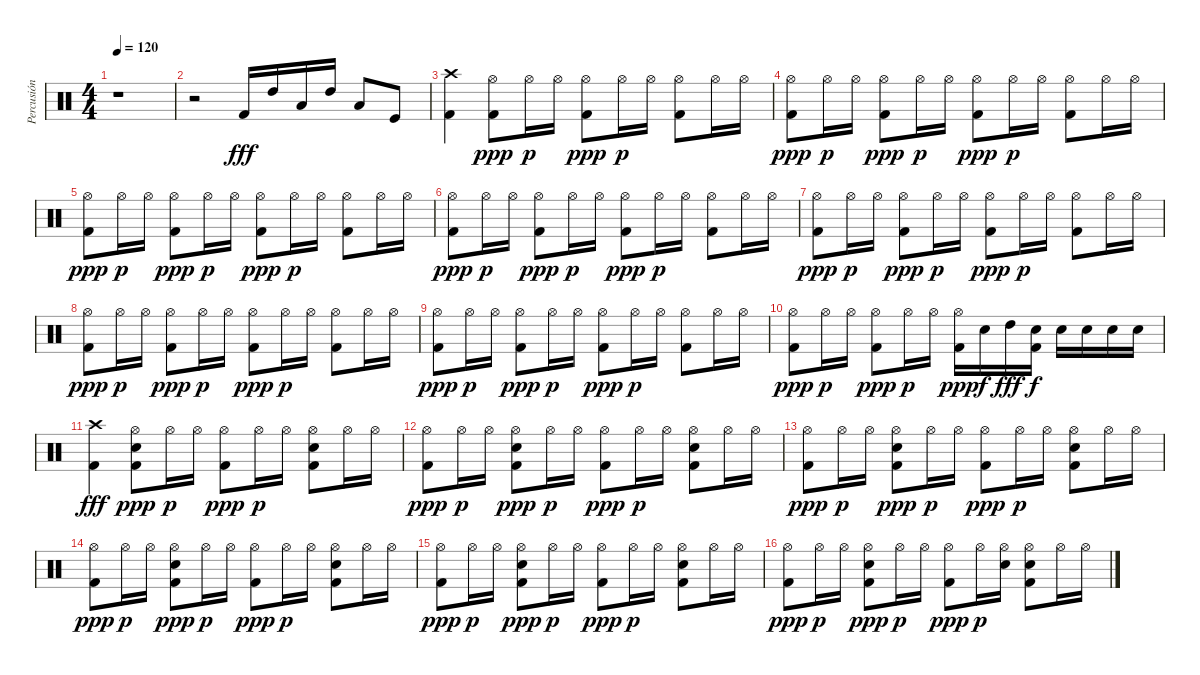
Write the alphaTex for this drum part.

\track ("Percusión" "Percusión") {instrument percussion}
\staff {score}
\articulation defaults
\ts (4 4)
\tempo 120
\clef neutral
\ks c
r.1{dy fff} |
r.2 "Kick (hit) 2".16 "High Tom (hit)".16 "Low Tom (hit)".16 "High Tom (hit)".16 "Low Tom (hit)".8 "Kick (hit)".8 |
("Crash high (hit)" "Kick (hit) 2").4 ("Hi-Hat (open)" "Kick (hit) 2").8{dy ppp} "Hi-Hat (open)".16{dy p} "Hi-Hat (open)".16 ("Hi-Hat (open)" "Kick (hit) 2").8{dy ppp} "Hi-Hat (open)".16{dy p} "Hi-Hat (open)".16 ("Hi-Hat (open)" "Kick (hit) 2").8 "Hi-Hat (open)".16 "Hi-Hat (open)".16 |
("Hi-Hat (open)" "Kick (hit) 2").8{dy ppp} "Hi-Hat (open)".16{dy p} "Hi-Hat (open)".16 ("Hi-Hat (open)" "Kick (hit) 2").8{dy ppp} "Hi-Hat (open)".16{dy p} "Hi-Hat (open)".16 ("Hi-Hat (open)" "Kick (hit) 2").8{dy ppp} "Hi-Hat (open)".16{dy p} "Hi-Hat (open)".16 ("Hi-Hat (open)" "Kick (hit) 2").8 "Hi-Hat (open)".16 "Hi-Hat (open)".16 |
("Hi-Hat (open)" "Kick (hit) 2").8{dy ppp} "Hi-Hat (open)".16{dy p} "Hi-Hat (open)".16 ("Hi-Hat (open)" "Kick (hit) 2").8{dy ppp} "Hi-Hat (open)".16{dy p} "Hi-Hat (open)".16 ("Hi-Hat (open)" "Kick (hit) 2").8{dy ppp} "Hi-Hat (open)".16{dy p} "Hi-Hat (open)".16 ("Hi-Hat (open)" "Kick (hit) 2").8 "Hi-Hat (open)".16 "Hi-Hat (open)".16 |
("Hi-Hat (open)" "Kick (hit) 2").8{dy ppp} "Hi-Hat (open)".16{dy p} "Hi-Hat (open)".16 ("Hi-Hat (open)" "Kick (hit) 2").8{dy ppp} "Hi-Hat (open)".16{dy p} "Hi-Hat (open)".16 ("Hi-Hat (open)" "Kick (hit) 2").8{dy ppp} "Hi-Hat (open)".16{dy p} "Hi-Hat (open)".16 ("Hi-Hat (open)" "Kick (hit) 2").8 "Hi-Hat (open)".16 "Hi-Hat (open)".16 |
("Hi-Hat (open)" "Kick (hit) 2").8{dy ppp} "Hi-Hat (open)".16{dy p} "Hi-Hat (open)".16 ("Hi-Hat (open)" "Kick (hit) 2").8{dy ppp} "Hi-Hat (open)".16{dy p} "Hi-Hat (open)".16 ("Hi-Hat (open)" "Kick (hit) 2").8{dy ppp} "Hi-Hat (open)".16{dy p} "Hi-Hat (open)".16 ("Hi-Hat (open)" "Kick (hit) 2").8 "Hi-Hat (open)".16 "Hi-Hat (open)".16 |
("Hi-Hat (open)" "Kick (hit) 2").8{dy ppp} "Hi-Hat (open)".16{dy p} "Hi-Hat (open)".16 ("Hi-Hat (open)" "Kick (hit) 2").8{dy ppp} "Hi-Hat (open)".16{dy p} "Hi-Hat (open)".16 ("Hi-Hat (open)" "Kick (hit) 2").8{dy ppp} "Hi-Hat (open)".16{dy p} "Hi-Hat (open)".16 ("Hi-Hat (open)" "Kick (hit) 2").8 "Hi-Hat (open)".16 "Hi-Hat (open)".16 |
("Hi-Hat (open)" "Kick (hit) 2").8{dy ppp} "Hi-Hat (open)".16{dy p} "Hi-Hat (open)".16 ("Hi-Hat (open)" "Kick (hit) 2").8{dy ppp} "Hi-Hat (open)".16{dy p} "Hi-Hat (open)".16 ("Hi-Hat (open)" "Kick (hit) 2").8{dy ppp} "Hi-Hat (open)".16{dy p} "Hi-Hat (open)".16 ("Hi-Hat (open)" "Kick (hit) 2").8 "Hi-Hat (open)".16 "Hi-Hat (open)".16 |
("Hi-Hat (open)" "Kick (hit) 2").8{dy ppp} "Hi-Hat (open)".16{dy p} "Hi-Hat (open)".16 ("Hi-Hat (open)" "Kick (hit) 2").8{dy ppp} "Hi-Hat (open)".16{dy p} "Hi-Hat (open)".16 ("Hi-Hat (open)" "Kick (hit) 2").16{dy ppp} "Snare (hit) 2".16{dy f} "High Tom (hit)".16{dy fff} ("Kick (hit) 2" "Snare (hit) 2").16{dy f} "Snare (hit) 2".16 "Snare (hit) 2".16 "Snare (hit) 2".16 "Snare (hit) 2".16 |
("Crash high (hit)" "Kick (hit) 2").4{dy fff} ("Hi-Hat (open)" "Kick (hit) 2" "Snare (hit) 2").8{dy ppp} "Hi-Hat (open)".16{dy p} "Hi-Hat (open)".16 ("Hi-Hat (open)" "Kick (hit) 2").8{dy ppp} "Hi-Hat (open)".16{dy p} "Hi-Hat (open)".16 ("Hi-Hat (open)" "Kick (hit) 2" "Snare (hit) 2").8 "Hi-Hat (open)".16 "Hi-Hat (open)".16 |
("Hi-Hat (open)" "Kick (hit) 2").8{dy ppp} "Hi-Hat (open)".16{dy p} "Hi-Hat (open)".16 ("Hi-Hat (open)" "Kick (hit) 2" "Snare (hit) 2").8{dy ppp} "Hi-Hat (open)".16{dy p} "Hi-Hat (open)".16 ("Hi-Hat (open)" "Kick (hit) 2").8{dy ppp} "Hi-Hat (open)".16{dy p} "Hi-Hat (open)".16 ("Hi-Hat (open)" "Kick (hit) 2" "Snare (hit) 2").8 "Hi-Hat (open)".16 "Hi-Hat (open)".16 |
("Hi-Hat (open)" "Kick (hit) 2").8{dy ppp} "Hi-Hat (open)".16{dy p} "Hi-Hat (open)".16 ("Hi-Hat (open)" "Kick (hit) 2" "Snare (hit) 2").8{dy ppp} "Hi-Hat (open)".16{dy p} "Hi-Hat (open)".16 ("Hi-Hat (open)" "Kick (hit) 2").8{dy ppp} "Hi-Hat (open)".16{dy p} "Hi-Hat (open)".16 ("Hi-Hat (open)" "Kick (hit) 2" "Snare (hit) 2").8 "Hi-Hat (open)".16 "Hi-Hat (open)".16 |
("Hi-Hat (open)" "Kick (hit) 2").8{dy ppp} "Hi-Hat (open)".16{dy p} "Hi-Hat (open)".16 ("Hi-Hat (open)" "Kick (hit) 2" "Snare (hit) 2").8{dy ppp} "Hi-Hat (open)".16{dy p} "Hi-Hat (open)".16 ("Hi-Hat (open)" "Kick (hit) 2").8{dy ppp} "Hi-Hat (open)".16{dy p} "Hi-Hat (open)".16 ("Hi-Hat (open)" "Kick (hit) 2" "Snare (hit) 2").8 "Hi-Hat (open)".16 "Hi-Hat (open)".16 |
("Hi-Hat (open)" "Kick (hit) 2").8{dy ppp} "Hi-Hat (open)".16{dy p} "Hi-Hat (open)".16 ("Hi-Hat (open)" "Kick (hit) 2" "Snare (hit) 2").8{dy ppp} "Hi-Hat (open)".16{dy p} "Hi-Hat (open)".16 ("Hi-Hat (open)" "Kick (hit) 2").8{dy ppp} "Hi-Hat (open)".16{dy p} "Hi-Hat (open)".16 ("Hi-Hat (open)" "Kick (hit) 2" "Snare (hit) 2").8 "Hi-Hat (open)".16 "Hi-Hat (open)".16 |
("Hi-Hat (open)" "Kick (hit) 2").8{dy ppp} "Hi-Hat (open)".16{dy p} "Hi-Hat (open)".16 ("Hi-Hat (open)" "Kick (hit) 2" "Snare (hit) 2").8{dy ppp} "Hi-Hat (open)".16{dy p} "Hi-Hat (open)".16 ("Hi-Hat (open)" "Kick (hit) 2").8{dy ppp} "Hi-Hat (open)".16{dy p} ("Hi-Hat (open)" "Snare (hit) 2").16 ("Hi-Hat (open)" "Kick (hit) 2" "Snare (hit) 2").8 "Hi-Hat (open)".16 "Hi-Hat (open)".16
